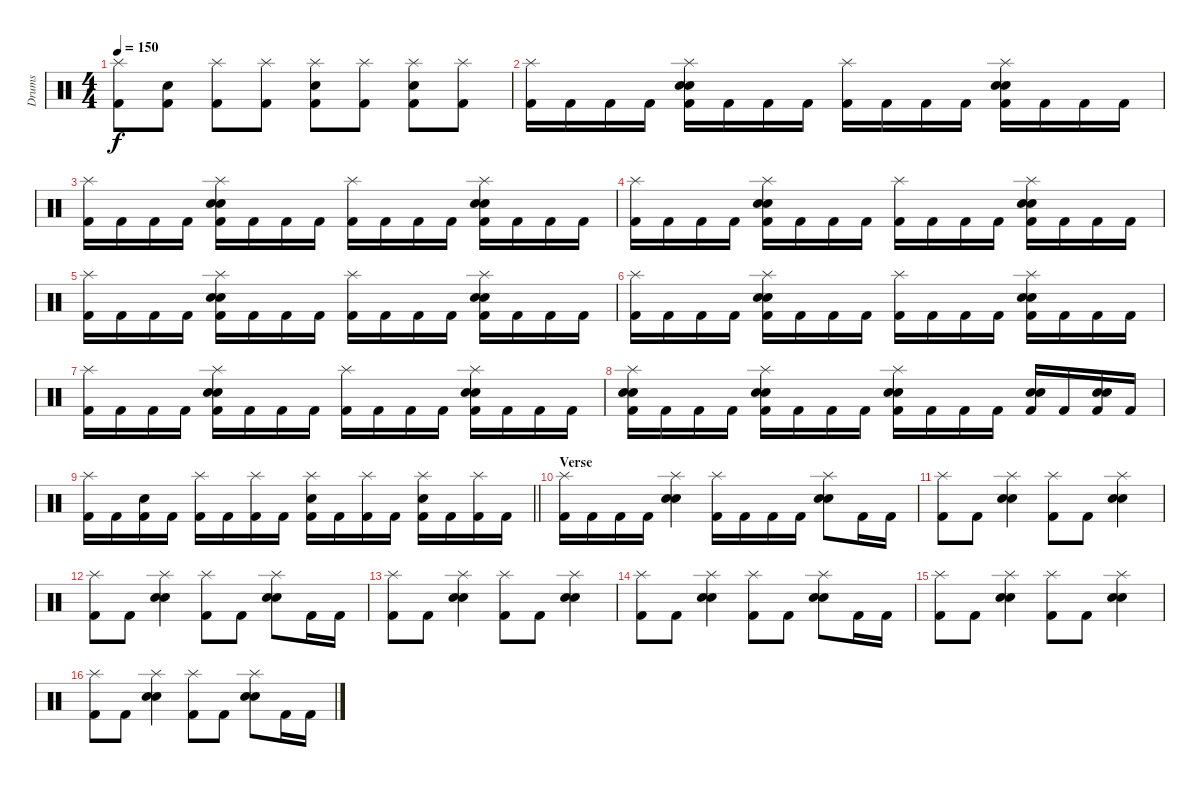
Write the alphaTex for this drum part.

\track ("Drums" "Drums") {instrument percussion}
\staff {score}
\articulation defaults
\ts (4 4)
\tempo 150
\clef neutral
\ks c
("Splash (hit)" "Kick (hit) 2").8{dy f} ("Electric Snare (hit)" "Kick (hit) 2").8 ("Splash (hit)" "Kick (hit) 2").8 ("Splash (hit)" "Kick (hit) 2").8 ("Splash (hit)" "Electric Snare (hit)" "Kick (hit) 2").8 ("Splash (hit)" "Kick (hit) 2").8 ("Splash (hit)" "Electric Snare (hit)" "Kick (hit) 2").8 ("Splash (hit)" "Kick (hit) 2").8 |
("Splash (hit)" "Kick (hit) 2").16 "Kick (hit) 2".16 "Kick (hit) 2".16 "Kick (hit) 2".16 ("Splash (hit)" "Electric Snare (hit)" "Snare (hit) 2" "Kick (hit) 2").16 "Kick (hit) 2".16 "Kick (hit) 2".16 "Kick (hit) 2".16 ("Splash (hit)" "Kick (hit) 2").16 "Kick (hit) 2".16 "Kick (hit) 2".16 "Kick (hit) 2".16 ("Splash (hit)" "Electric Snare (hit)" "Snare (hit) 2" "Kick (hit) 2").16 "Kick (hit) 2".16 "Kick (hit) 2".16 "Kick (hit) 2".16 |
("Splash (hit)" "Kick (hit) 2").16 "Kick (hit) 2".16 "Kick (hit) 2".16 "Kick (hit) 2".16 ("Splash (hit)" "Electric Snare (hit)" "Snare (hit) 2" "Kick (hit) 2").16 "Kick (hit) 2".16 "Kick (hit) 2".16 "Kick (hit) 2".16 ("Splash (hit)" "Kick (hit) 2").16 "Kick (hit) 2".16 "Kick (hit) 2".16 "Kick (hit) 2".16 ("Splash (hit)" "Electric Snare (hit)" "Snare (hit) 2" "Kick (hit) 2").16 "Kick (hit) 2".16 "Kick (hit) 2".16 "Kick (hit) 2".16 |
("Splash (hit)" "Kick (hit) 2").16 "Kick (hit) 2".16 "Kick (hit) 2".16 "Kick (hit) 2".16 ("Splash (hit)" "Electric Snare (hit)" "Snare (hit) 2" "Kick (hit) 2").16 "Kick (hit) 2".16 "Kick (hit) 2".16 "Kick (hit) 2".16 ("Splash (hit)" "Kick (hit) 2").16 "Kick (hit) 2".16 "Kick (hit) 2".16 "Kick (hit) 2".16 ("Splash (hit)" "Electric Snare (hit)" "Snare (hit) 2" "Kick (hit) 2").16 "Kick (hit) 2".16 "Kick (hit) 2".16 "Kick (hit) 2".16 |
("Splash (hit)" "Kick (hit) 2").16 "Kick (hit) 2".16 "Kick (hit) 2".16 "Kick (hit) 2".16 ("Splash (hit)" "Electric Snare (hit)" "Snare (hit) 2" "Kick (hit) 2").16 "Kick (hit) 2".16 "Kick (hit) 2".16 "Kick (hit) 2".16 ("Splash (hit)" "Kick (hit) 2").16 "Kick (hit) 2".16 "Kick (hit) 2".16 "Kick (hit) 2".16 ("Splash (hit)" "Electric Snare (hit)" "Snare (hit) 2" "Kick (hit) 2").16 "Kick (hit) 2".16 "Kick (hit) 2".16 "Kick (hit) 2".16 |
("Splash (hit)" "Kick (hit) 2").16 "Kick (hit) 2".16 "Kick (hit) 2".16 "Kick (hit) 2".16 ("Splash (hit)" "Electric Snare (hit)" "Snare (hit) 2" "Kick (hit) 2").16 "Kick (hit) 2".16 "Kick (hit) 2".16 "Kick (hit) 2".16 ("Splash (hit)" "Kick (hit) 2").16 "Kick (hit) 2".16 "Kick (hit) 2".16 "Kick (hit) 2".16 ("Splash (hit)" "Electric Snare (hit)" "Snare (hit) 2" "Kick (hit) 2").16 "Kick (hit) 2".16 "Kick (hit) 2".16 "Kick (hit) 2".16 |
("Splash (hit)" "Kick (hit) 2").16 "Kick (hit) 2".16 "Kick (hit) 2".16 "Kick (hit) 2".16 ("Splash (hit)" "Electric Snare (hit)" "Snare (hit) 2" "Kick (hit) 2").16 "Kick (hit) 2".16 "Kick (hit) 2".16 "Kick (hit) 2".16 ("Splash (hit)" "Kick (hit) 2").16 "Kick (hit) 2".16 "Kick (hit) 2".16 "Kick (hit) 2".16 ("Splash (hit)" "Electric Snare (hit)" "Snare (hit) 2" "Kick (hit) 2").16 "Kick (hit) 2".16 "Kick (hit) 2".16 "Kick (hit) 2".16 |
("Splash (hit)" "Electric Snare (hit)" "Snare (hit) 2" "Kick (hit) 2").16 "Kick (hit) 2".16 "Kick (hit) 2".16 "Kick (hit) 2".16 ("Splash (hit)" "Electric Snare (hit)" "Snare (hit) 2" "Kick (hit) 2").16 "Kick (hit) 2".16 "Kick (hit) 2".16 "Kick (hit) 2".16 ("Splash (hit)" "Electric Snare (hit)" "Snare (hit) 2" "Kick (hit) 2").16 "Kick (hit) 2".16 "Kick (hit) 2".16 "Kick (hit) 2".16 ("Electric Snare (hit)" "Snare (hit) 2" "Kick (hit) 2").16 "Kick (hit) 2".16 ("Electric Snare (hit)" "Snare (hit) 2" "Kick (hit) 2").16 "Kick (hit) 2".16 |
\barLineRight lightlight
("Splash (hit)" "Kick (hit) 2").16 "Kick (hit) 2".16 ("Electric Snare (hit)" "Kick (hit) 2").16 "Kick (hit) 2".16 ("Splash (hit)" "Kick (hit) 2").16 "Kick (hit) 2".16 ("Splash (hit)" "Kick (hit) 2").16 "Kick (hit) 2".16 ("Splash (hit)" "Electric Snare (hit)" "Kick (hit) 2").16 "Kick (hit) 2".16 ("Splash (hit)" "Kick (hit) 2").16 "Kick (hit) 2".16 ("Splash (hit)" "Electric Snare (hit)" "Kick (hit) 2").16 "Kick (hit) 2".16 ("Splash (hit)" "Kick (hit) 2").16 "Kick (hit) 2".16 |
\section ("" "Verse")
("Splash (hit)" "Kick (hit) 2").16 "Kick (hit) 2".16 "Kick (hit) 2".16 "Kick (hit) 2".16 ("Splash (hit)" "Electric Snare (hit)" "Snare (hit) 2").4 ("Splash (hit)" "Kick (hit) 2").16 "Kick (hit) 2".16 "Kick (hit) 2".16 "Kick (hit) 2".16 ("Splash (hit)" "Electric Snare (hit)" "Snare (hit) 2").8 "Kick (hit) 2".16 "Kick (hit) 2".16 |
("Splash (hit)" "Kick (hit) 2").8 "Kick (hit) 2".8 ("Splash (hit)" "Electric Snare (hit)" "Snare (hit) 2").4 ("Splash (hit)" "Kick (hit) 2").8 "Kick (hit) 2".8 ("Splash (hit)" "Electric Snare (hit)" "Snare (hit) 2").4 |
("Splash (hit)" "Kick (hit) 2").8 "Kick (hit) 2".8 ("Splash (hit)" "Electric Snare (hit)" "Snare (hit) 2").4 ("Splash (hit)" "Kick (hit) 2").8 "Kick (hit) 2".8 ("Splash (hit)" "Electric Snare (hit)" "Snare (hit) 2").8 "Kick (hit) 2".16 "Kick (hit) 2".16 |
("Splash (hit)" "Kick (hit) 2").8 "Kick (hit) 2".8 ("Splash (hit)" "Electric Snare (hit)" "Snare (hit) 2").4 ("Splash (hit)" "Kick (hit) 2").8 "Kick (hit) 2".8 ("Splash (hit)" "Electric Snare (hit)" "Snare (hit) 2").4 |
("Splash (hit)" "Kick (hit) 2").8 "Kick (hit) 2".8 ("Splash (hit)" "Electric Snare (hit)" "Snare (hit) 2").4 ("Splash (hit)" "Kick (hit) 2").8 "Kick (hit) 2".8 ("Splash (hit)" "Electric Snare (hit)" "Snare (hit) 2").8 "Kick (hit) 2".16 "Kick (hit) 2".16 |
("Splash (hit)" "Kick (hit) 2").8 "Kick (hit) 2".8 ("Splash (hit)" "Electric Snare (hit)" "Snare (hit) 2").4 ("Splash (hit)" "Kick (hit) 2").8 "Kick (hit) 2".8 ("Splash (hit)" "Electric Snare (hit)" "Snare (hit) 2").4 |
("Splash (hit)" "Kick (hit) 2").8 "Kick (hit) 2".8 ("Splash (hit)" "Electric Snare (hit)" "Snare (hit) 2").4 ("Splash (hit)" "Kick (hit) 2").8 "Kick (hit) 2".8 ("Splash (hit)" "Electric Snare (hit)" "Snare (hit) 2").8 "Kick (hit) 2".16 "Kick (hit) 2".16
